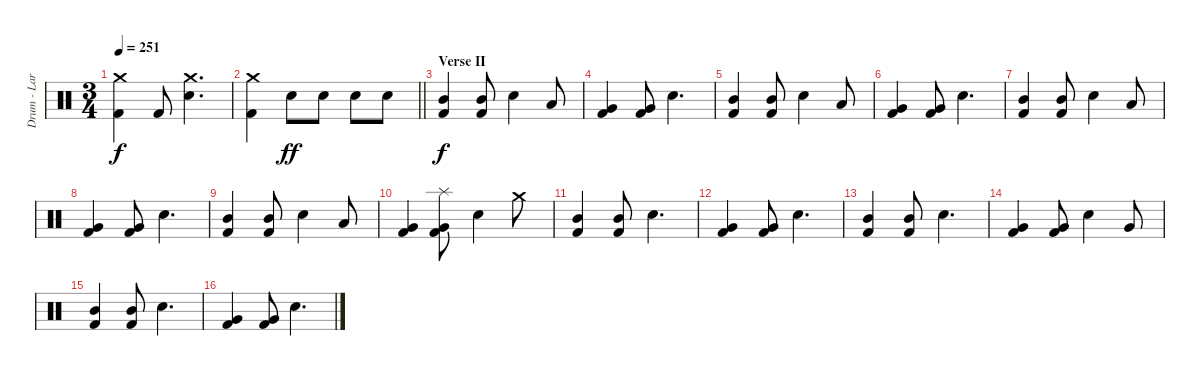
\track ("Drum - Larzon" "Drum - Lar") {instrument percussion}
\staff {score}
\articulation defaults
\ts (3 4)
\tempo 251
\clef neutral
\ks c
("Kick (hit) 2" "Crash medium (hit)").4{dy f} "Kick (hit) 2".8 ("Snare (hit) 2" "Crash medium (hit)").4{d} |
\barLineRight lightlight
("Kick (hit) 2" "Crash medium (hit)").4 "Electric Snare (hit)".8{dy ff} "Electric Snare (hit)".8 "Electric Snare (hit)".8 "Electric Snare (hit)".8 |
\section ("" "Verse II")
("Kick (hit) 2" "Mid Tom (hit)").4{dy f} ("Kick (hit) 2" "Mid Tom (hit)").8 "Snare (hit) 2".4 "Low Tom (hit)".8 |
("Kick (hit) 2" "Very Low Tom (hit)").4 ("Kick (hit) 2" "Very Low Tom (hit)").8 "Snare (hit) 2".4{d} |
("Kick (hit) 2" "Mid Tom (hit)").4 ("Kick (hit) 2" "Mid Tom (hit)").8 "Snare (hit) 2".4 "Low Tom (hit)".8 |
("Kick (hit) 2" "Very Low Tom (hit)").4 ("Kick (hit) 2" "Very Low Tom (hit)").8 "Snare (hit) 2".4{d} |
("Kick (hit) 2" "Mid Tom (hit)").4 ("Kick (hit) 2" "Mid Tom (hit)").8 "Snare (hit) 2".4 "Low Tom (hit)".8 |
("Kick (hit) 2" "Very Low Tom (hit)").4 ("Kick (hit) 2" "Very Low Tom (hit)").8 "Snare (hit) 2".4{d} |
("Kick (hit) 2" "Mid Tom (hit)").4 ("Kick (hit) 2" "Mid Tom (hit)").8 "Snare (hit) 2".4 "Low Tom (hit)".8 |
("Kick (hit) 2" "Very Low Tom (hit)").4 ("Kick (hit) 2" "Very Low Tom (hit)" "Splash (hit)").8 "Snare (hit) 2".4 "Crash medium (hit)".8 |
("Kick (hit) 2" "Mid Tom (hit)").4 ("Kick (hit) 2" "Mid Tom (hit)").8 "Snare (hit) 2".4{d} |
("Kick (hit) 2" "Very Low Tom (hit)").4 ("Kick (hit) 2" "Very Low Tom (hit)").8 "Snare (hit) 2".4{d} |
("Kick (hit) 2" "Mid Tom (hit)").4 ("Kick (hit) 2" "Mid Tom (hit)").8 "Snare (hit) 2".4{d} |
("Kick (hit) 2" "Very Low Tom (hit)").4 ("Kick (hit) 2" "Very Low Tom (hit)").8 "Snare (hit) 2".4 "Very Low Tom (hit)".8 |
("Kick (hit) 2" "Mid Tom (hit)").4 ("Kick (hit) 2" "Mid Tom (hit)").8 "Snare (hit) 2".4{d} |
("Kick (hit) 2" "Very Low Tom (hit)").4 ("Kick (hit) 2" "Very Low Tom (hit)").8 "Snare (hit) 2".4{d}
